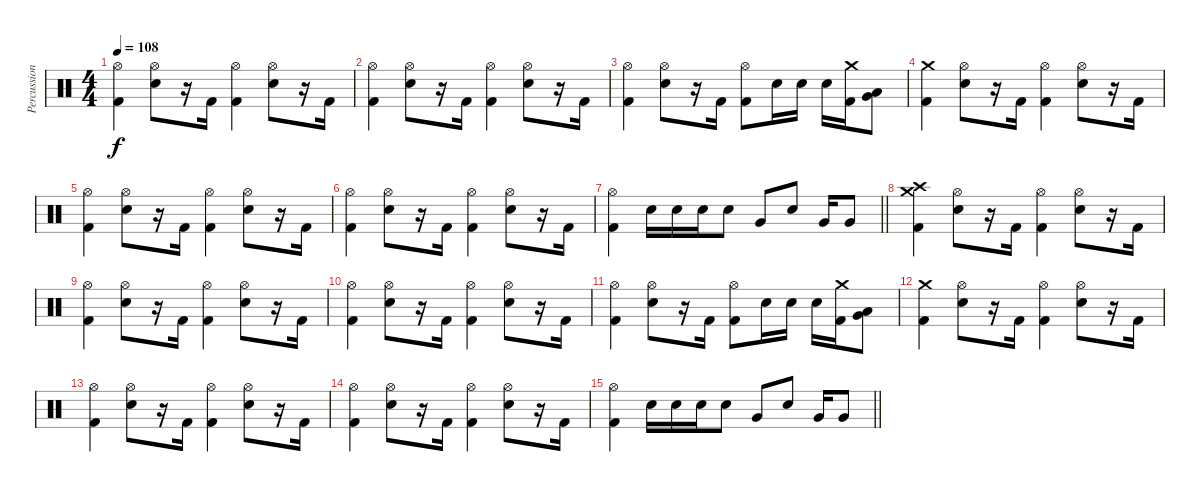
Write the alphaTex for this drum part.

\track ("Percussion" "Percussion") {instrument percussion}
\staff {score}
\articulation defaults
\ts (4 4)
\tempo 108
\clef neutral
\ks c
("Hi-Hat (open)" "Kick (hit) 2").4{dy f} ("Hi-Hat (open)" "Snare (hit) 2").8 r.16 "Kick (hit) 2".16 ("Hi-Hat (open)" "Kick (hit) 2").4 ("Hi-Hat (open)" "Snare (hit) 2").8 r.16 "Kick (hit) 2".16 |
("Hi-Hat (open)" "Kick (hit) 2").4 ("Hi-Hat (open)" "Snare (hit) 2").8 r.16 "Kick (hit) 2".16 ("Hi-Hat (open)" "Kick (hit) 2").4 ("Hi-Hat (open)" "Snare (hit) 2").8 r.16 "Kick (hit) 2".16 |
("Hi-Hat (open)" "Kick (hit) 2").4 ("Hi-Hat (open)" "Snare (hit) 2").8 r.16 "Kick (hit) 2".16 ("Hi-Hat (open)" "Kick (hit) 2").8 "Snare (hit) 2".16 "Snare (hit) 2".16 "Snare (hit) 2".16 ("Kick (hit) 2" "Crash medium (hit)").16 ("Very Low Tom (hit)" "Low Tom (hit)").8 |
("Kick (hit) 2" "Crash medium (hit)").4 ("Hi-Hat (open)" "Snare (hit) 2").8 r.16 "Kick (hit) 2".16 ("Hi-Hat (open)" "Kick (hit) 2").4 ("Hi-Hat (open)" "Snare (hit) 2").8 r.16 "Kick (hit) 2".16 |
("Hi-Hat (open)" "Kick (hit) 2").4 ("Hi-Hat (open)" "Snare (hit) 2").8 r.16 "Kick (hit) 2".16 ("Hi-Hat (open)" "Kick (hit) 2").4 ("Hi-Hat (open)" "Snare (hit) 2").8 r.16 "Kick (hit) 2".16 |
("Hi-Hat (open)" "Kick (hit) 2").4 ("Hi-Hat (open)" "Snare (hit) 2").8 r.16 "Kick (hit) 2".16 ("Hi-Hat (open)" "Kick (hit) 2").4 ("Hi-Hat (open)" "Snare (hit) 2").8 r.16 "Kick (hit) 2".16 |
\barLineRight lightlight
("Hi-Hat (open)" "Kick (hit) 2").4 "Snare (hit) 2".16 "Snare (hit) 2".16 "Snare (hit) 2".16 "Snare (hit) 2".8 "Very Low Tom (hit)".8 "Snare (hit) 2".8 "Very Low Tom (hit)".16 "Very Low Tom (hit)".8 |
("Kick (hit) 2" "Crash medium (hit)" "Crash high (hit)").4 ("Hi-Hat (open)" "Snare (hit) 2").8 r.16 "Kick (hit) 2".16 ("Hi-Hat (open)" "Kick (hit) 2").4 ("Hi-Hat (open)" "Snare (hit) 2").8 r.16 "Kick (hit) 2".16 |
("Hi-Hat (open)" "Kick (hit) 2").4 ("Hi-Hat (open)" "Snare (hit) 2").8 r.16 "Kick (hit) 2".16 ("Hi-Hat (open)" "Kick (hit) 2").4 ("Hi-Hat (open)" "Snare (hit) 2").8 r.16 "Kick (hit) 2".16 |
("Hi-Hat (open)" "Kick (hit) 2").4 ("Hi-Hat (open)" "Snare (hit) 2").8 r.16 "Kick (hit) 2".16 ("Hi-Hat (open)" "Kick (hit) 2").4 ("Hi-Hat (open)" "Snare (hit) 2").8 r.16 "Kick (hit) 2".16 |
("Hi-Hat (open)" "Kick (hit) 2").4 ("Hi-Hat (open)" "Snare (hit) 2").8 r.16 "Kick (hit) 2".16 ("Hi-Hat (open)" "Kick (hit) 2").8 "Snare (hit) 2".16 "Snare (hit) 2".16 "Snare (hit) 2".16 ("Kick (hit) 2" "Crash medium (hit)").16 ("Very Low Tom (hit)" "Low Tom (hit)").8 |
("Kick (hit) 2" "Crash medium (hit)").4 ("Hi-Hat (open)" "Snare (hit) 2").8 r.16 "Kick (hit) 2".16 ("Hi-Hat (open)" "Kick (hit) 2").4 ("Hi-Hat (open)" "Snare (hit) 2").8 r.16 "Kick (hit) 2".16 |
("Hi-Hat (open)" "Kick (hit) 2").4 ("Hi-Hat (open)" "Snare (hit) 2").8 r.16 "Kick (hit) 2".16 ("Hi-Hat (open)" "Kick (hit) 2").4 ("Hi-Hat (open)" "Snare (hit) 2").8 r.16 "Kick (hit) 2".16 |
("Hi-Hat (open)" "Kick (hit) 2").4 ("Hi-Hat (open)" "Snare (hit) 2").8 r.16 "Kick (hit) 2".16 ("Hi-Hat (open)" "Kick (hit) 2").4 ("Hi-Hat (open)" "Snare (hit) 2").8 r.16 "Kick (hit) 2".16 |
\barLineRight lightlight
("Hi-Hat (open)" "Kick (hit) 2").4 "Snare (hit) 2".16 "Snare (hit) 2".16 "Snare (hit) 2".16 "Snare (hit) 2".8 "Very Low Tom (hit)".8 "Snare (hit) 2".8 "Very Low Tom (hit)".16 "Very Low Tom (hit)".8
